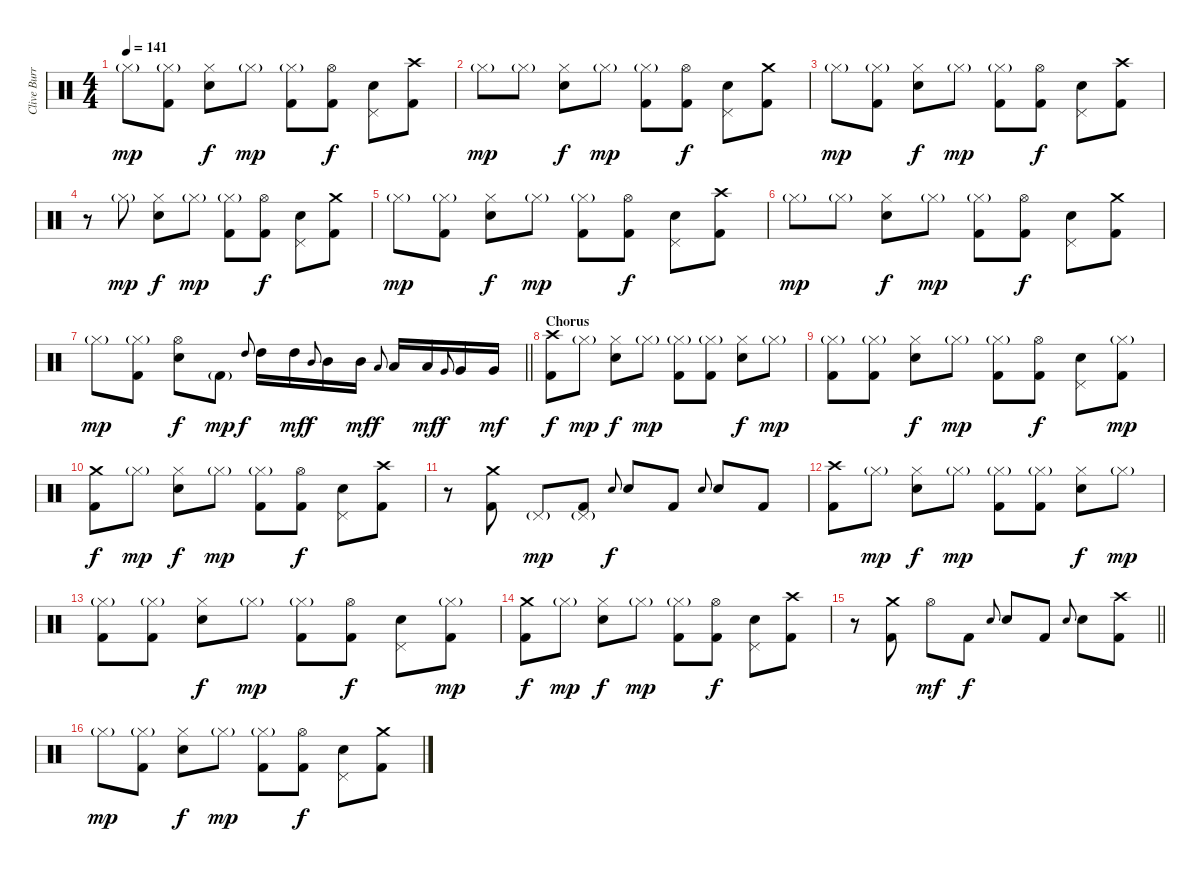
\track ("Clive Burr" "Clive Burr") {instrument percussion}
\staff {score}
\articulation defaults
\ts (4 4)
\tempo 141
\clef neutral
\ks c "Hi-Hat (closed)"{g}.8{dy mp}
("Hi-Hat (closed)"{g} "Kick (hit) 2").8 ("Hi-Hat (closed)" "Snare (hit) 2").8{dy f} "Hi-Hat (closed)"{g}.8{dy mp} ("Hi-Hat (closed)"{g} "Kick (hit) 2").8 ("Hi-Hat (open)" "Kick (hit) 2").8{dy f} ("Pedal Hi-Hat (hit)" "Snare (hit) 2").8 ("Crash high (hit)" "Kick (hit) 2").8 |
"Hi-Hat (closed)"{g}.8{dy mp} "Hi-Hat (closed)"{g}.8 ("Hi-Hat (closed)" "Snare (hit) 2").8{dy f} "Hi-Hat (closed)"{g}.8{dy mp} ("Hi-Hat (closed)"{g} "Kick (hit) 2").8 ("Hi-Hat (open)" "Kick (hit) 2").8{dy f} ("Pedal Hi-Hat (hit)" "Snare (hit) 2").8 ("Crash medium (hit)" "Kick (hit) 2").8 |
"Hi-Hat (closed)"{g}.8{dy mp} ("Hi-Hat (closed)"{g} "Kick (hit) 2").8 ("Hi-Hat (closed)" "Snare (hit) 2").8{dy f} "Hi-Hat (closed)"{g}.8{dy mp} ("Hi-Hat (closed)"{g} "Kick (hit) 2").8 ("Hi-Hat (open)" "Kick (hit) 2").8{dy f} ("Pedal Hi-Hat (hit)" "Snare (hit) 2").8 ("Crash high (hit)" "Kick (hit) 2").8 |
r.8 "Hi-Hat (closed)"{g}.8{dy mp} ("Hi-Hat (closed)" "Snare (hit) 2").8{dy f} "Hi-Hat (closed)"{g}.8{dy mp} ("Hi-Hat (closed)"{g} "Kick (hit) 2").8 ("Hi-Hat (open)" "Kick (hit) 2").8{dy f} ("Pedal Hi-Hat (hit)" "Snare (hit) 2").8 ("Crash medium (hit)" "Kick (hit) 2").8 |
"Hi-Hat (closed)"{g}.8{dy mp} ("Hi-Hat (closed)"{g} "Kick (hit) 2").8 ("Hi-Hat (closed)" "Snare (hit) 2").8{dy f} "Hi-Hat (closed)"{g}.8{dy mp} ("Hi-Hat (closed)"{g} "Kick (hit) 2").8 ("Hi-Hat (open)" "Kick (hit) 2").8{dy f} ("Pedal Hi-Hat (hit)" "Snare (hit) 2").8 ("Crash high (hit)" "Kick (hit) 2").8 |
"Hi-Hat (closed)"{g}.8{dy mp} "Hi-Hat (closed)"{g}.8 ("Hi-Hat (closed)" "Snare (hit) 2").8{dy f} "Hi-Hat (closed)"{g}.8{dy mp} ("Hi-Hat (closed)"{g} "Kick (hit) 2").8 ("Hi-Hat (open)" "Kick (hit) 2").8{dy f} ("Pedal Hi-Hat (hit)" "Snare (hit) 2").8 ("Crash medium (hit)" "Kick (hit) 2").8 |
\barLineRight lightlight "Hi-Hat (closed)"{g}.8{dy mp}
("Hi-Hat (closed)"{g} "Kick (hit) 2").8 ("Hi-Hat (open)" "Snare (hit) 2").8{dy f} "Kick (hit) 2"{g}.8{dy mp} "High Tom (hit)".8{gr onbeat dy f} "High Tom (hit)".16 "High Tom (hit)".16{dy mf} "Mid Tom (hit)".8{gr onbeat dy f} "Mid Tom (hit)".16 "Mid Tom (hit)".16{dy mf} "Low Tom (hit)".8{gr onbeat dy f} "Low Tom (hit)".16 "Low Tom (hit)".16{dy mf} "Very Low Tom (hit)".8{gr onbeat dy f} "Very Low Tom (hit)".16 "Very Low Tom (hit)".16{dy mf} |
\section ("" "Chorus")
("Crash high (hit)" "Kick (hit) 2").8{dy f} "Hi-Hat (closed)"{g}.8{dy mp} ("Hi-Hat (closed)" "Snare (hit) 2").8{dy f} "Hi-Hat (closed)"{g}.8{dy mp} ("Hi-Hat (closed)"{g} "Kick (hit) 2").8 ("Hi-Hat (closed)"{g} "Kick (hit) 2").8 ("Hi-Hat (closed)" "Snare (hit) 2").8{dy f} "Hi-Hat (closed)"{g}.8{dy mp} |
("Hi-Hat (closed)"{g} "Kick (hit) 2").8 ("Hi-Hat (closed)"{g} "Kick (hit) 2").8 ("Hi-Hat (closed)" "Snare (hit) 2").8{dy f} "Hi-Hat (closed)"{g}.8{dy mp} ("Hi-Hat (closed)"{g} "Kick (hit) 2").8 ("Hi-Hat (open)" "Kick (hit) 2").8{dy f} ("Pedal Hi-Hat (hit)" "Snare (hit) 2").8 ("Hi-Hat (closed)"{g} "Kick (hit) 2").8{dy mp} |
("Crash medium (hit)" "Kick (hit) 2").8{dy f} "Hi-Hat (closed)"{g}.8{dy mp} ("Hi-Hat (closed)" "Snare (hit) 2").8{dy f} "Hi-Hat (closed)"{g}.8{dy mp} ("Hi-Hat (closed)"{g} "Kick (hit) 2").8 ("Hi-Hat (open)" "Kick (hit) 2").8{dy f} ("Pedal Hi-Hat (hit)" "Snare (hit) 2").8 ("Crash high (hit)" "Kick (hit) 2").8 |
r.8 ("Crash medium (hit)" "Kick (hit) 2").8 "Pedal Hi-Hat (hit)"{g}.8{dy mp} ("Pedal Hi-Hat (hit)"{g} "Kick (hit) 2").8 "Snare (hit) 2".8{gr onbeat dy f} "Snare (hit) 2".8 "Kick (hit) 2".8 "Snare (hit) 2".8{gr onbeat} "Snare (hit) 2".8 "Kick (hit) 2".8 |
("Crash high (hit)" "Kick (hit) 2").8 "Hi-Hat (closed)"{g}.8{dy mp} ("Hi-Hat (closed)" "Snare (hit) 2").8{dy f} "Hi-Hat (closed)"{g}.8{dy mp} ("Hi-Hat (closed)"{g} "Kick (hit) 2").8 ("Hi-Hat (closed)"{g} "Kick (hit) 2").8 ("Hi-Hat (closed)" "Snare (hit) 2").8{dy f} "Hi-Hat (closed)"{g}.8{dy mp} |
("Hi-Hat (closed)"{g} "Kick (hit) 2").8 ("Hi-Hat (closed)"{g} "Kick (hit) 2").8 ("Hi-Hat (closed)" "Snare (hit) 2").8{dy f} "Hi-Hat (closed)"{g}.8{dy mp} ("Hi-Hat (closed)"{g} "Kick (hit) 2").8 ("Hi-Hat (open)" "Kick (hit) 2").8{dy f} ("Pedal Hi-Hat (hit)" "Snare (hit) 2").8 ("Hi-Hat (closed)"{g} "Kick (hit) 2").8{dy mp} |
("Crash medium (hit)" "Kick (hit) 2").8{dy f} "Hi-Hat (closed)"{g}.8{dy mp} ("Hi-Hat (closed)" "Snare (hit) 2").8{dy f} "Hi-Hat (closed)"{g}.8{dy mp} ("Hi-Hat (closed)"{g} "Kick (hit) 2").8 ("Hi-Hat (open)" "Kick (hit) 2").8{dy f} ("Pedal Hi-Hat (hit)" "Snare (hit) 2").8 ("Crash high (hit)" "Kick (hit) 2").8 |
\barLineRight lightlight
r.8 ("Crash medium (hit)" "Kick (hit) 2").8 "Hi-Hat (open)".8{dy mf} "Kick (hit) 2".8{dy f} "Snare (hit) 2".8{gr onbeat} "Snare (hit) 2".8 "Kick (hit) 2".8 "Snare (hit) 2".8{gr onbeat} "Snare (hit) 2".8 ("Crash high (hit)" "Kick (hit) 2").8 |
\section ("" "")
"Hi-Hat (closed)"{g}.8{dy mp} ("Hi-Hat (closed)"{g} "Kick (hit) 2").8 ("Hi-Hat (closed)" "Snare (hit) 2").8{dy f} "Hi-Hat (closed)"{g}.8{dy mp} ("Hi-Hat (closed)"{g} "Kick (hit) 2").8 ("Hi-Hat (open)" "Kick (hit) 2").8{dy f} ("Pedal Hi-Hat (hit)" "Snare (hit) 2").8 ("Crash medium (hit)" "Kick (hit) 2").8
